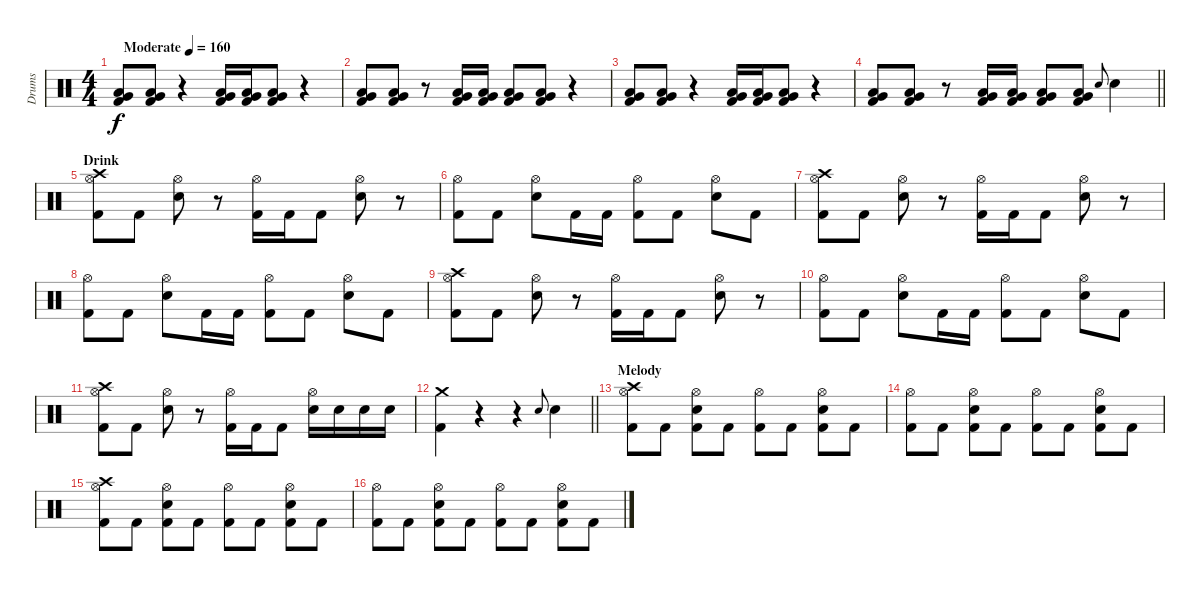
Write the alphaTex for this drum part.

\track ("Drums" "Drums") {instrument percussion}
\staff {score}
\articulation defaults
\ts (4 4)
\tempo (160 "Moderate")
\clef neutral
\ks c
("Very Low Tom (hit)" "Low Floor Tom (hit)" "Kick (hit) 2").8{dy f} ("Very Low Tom (hit)" "Low Floor Tom (hit)" "Kick (hit) 2").8 r.4 ("Very Low Tom (hit)" "Low Floor Tom (hit)" "Kick (hit) 2").16 ("Very Low Tom (hit)" "Low Floor Tom (hit)" "Kick (hit) 2").16 ("Very Low Tom (hit)" "Low Floor Tom (hit)" "Kick (hit) 2").8 r.4 |
("Very Low Tom (hit)" "Low Floor Tom (hit)" "Kick (hit) 2").8 ("Very Low Tom (hit)" "Low Floor Tom (hit)" "Kick (hit) 2").8 r.8 ("Very Low Tom (hit)" "Low Floor Tom (hit)" "Kick (hit) 2").16 ("Very Low Tom (hit)" "Low Floor Tom (hit)" "Kick (hit) 2").16 ("Very Low Tom (hit)" "Low Floor Tom (hit)" "Kick (hit) 2").8 ("Very Low Tom (hit)" "Low Floor Tom (hit)" "Kick (hit) 2").8 r.4 |
("Very Low Tom (hit)" "Low Floor Tom (hit)" "Kick (hit) 2").8 ("Very Low Tom (hit)" "Low Floor Tom (hit)" "Kick (hit) 2").8 r.4 ("Very Low Tom (hit)" "Low Floor Tom (hit)" "Kick (hit) 2").16 ("Very Low Tom (hit)" "Low Floor Tom (hit)" "Kick (hit) 2").16 ("Very Low Tom (hit)" "Low Floor Tom (hit)" "Kick (hit) 2").8 r.4 |
\barLineRight lightlight
("Very Low Tom (hit)" "Low Floor Tom (hit)" "Kick (hit) 2").8 ("Very Low Tom (hit)" "Low Floor Tom (hit)" "Kick (hit) 2").8 r.8 ("Very Low Tom (hit)" "Low Floor Tom (hit)" "Kick (hit) 2").16 ("Very Low Tom (hit)" "Low Floor Tom (hit)" "Kick (hit) 2").16 ("Very Low Tom (hit)" "Low Floor Tom (hit)" "Kick (hit) 2").8 ("Very Low Tom (hit)" "Low Floor Tom (hit)" "Kick (hit) 2").8 "Snare (hit) 2".8{gr onbeat} "Snare (hit) 2".4 |
\section ("" "Drink")
("Crash high (hit)" "Hi-Hat (open)" "Kick (hit) 2").8 "Kick (hit) 2".8 ("Hi-Hat (open)" "Snare (hit) 2").8 r.8 ("Hi-Hat (open)" "Kick (hit) 2").16 "Kick (hit) 2".16 "Kick (hit) 2".8 ("Hi-Hat (open)" "Snare (hit) 2").8 r.8 |
("Hi-Hat (open)" "Kick (hit) 2").8 "Kick (hit) 2".8 ("Hi-Hat (open)" "Snare (hit) 2").8 "Kick (hit) 2".16 "Kick (hit) 2".16 ("Hi-Hat (open)" "Kick (hit) 2").8 "Kick (hit) 2".8 ("Hi-Hat (open)" "Snare (hit) 2").8 "Kick (hit) 2".8 |
("Crash high (hit)" "Hi-Hat (open)" "Kick (hit) 2").8 "Kick (hit) 2".8 ("Hi-Hat (open)" "Snare (hit) 2").8 r.8 ("Hi-Hat (open)" "Kick (hit) 2").16 "Kick (hit) 2".16 "Kick (hit) 2".8 ("Hi-Hat (open)" "Snare (hit) 2").8 r.8 |
("Hi-Hat (open)" "Kick (hit) 2").8 "Kick (hit) 2".8 ("Hi-Hat (open)" "Snare (hit) 2").8 "Kick (hit) 2".16 "Kick (hit) 2".16 ("Hi-Hat (open)" "Kick (hit) 2").8 "Kick (hit) 2".8 ("Hi-Hat (open)" "Snare (hit) 2").8 "Kick (hit) 2".8 |
("Crash high (hit)" "Hi-Hat (open)" "Kick (hit) 2").8 "Kick (hit) 2".8 ("Hi-Hat (open)" "Snare (hit) 2").8 r.8 ("Hi-Hat (open)" "Kick (hit) 2").16 "Kick (hit) 2".16 "Kick (hit) 2".8 ("Hi-Hat (open)" "Snare (hit) 2").8 r.8 |
("Hi-Hat (open)" "Kick (hit) 2").8 "Kick (hit) 2".8 ("Hi-Hat (open)" "Snare (hit) 2").8 "Kick (hit) 2".16 "Kick (hit) 2".16 ("Hi-Hat (open)" "Kick (hit) 2").8 "Kick (hit) 2".8 ("Hi-Hat (open)" "Snare (hit) 2").8 "Kick (hit) 2".8 |
("Crash high (hit)" "Hi-Hat (open)" "Kick (hit) 2").8 "Kick (hit) 2".8 ("Hi-Hat (open)" "Snare (hit) 2").8 r.8 ("Hi-Hat (open)" "Kick (hit) 2").16 "Kick (hit) 2".16 "Kick (hit) 2".8 ("Hi-Hat (open)" "Snare (hit) 2").16 "Snare (hit) 2".16 "Snare (hit) 2".16 "Snare (hit) 2".16 |
\barLineRight lightlight
("Crash medium (hit)" "Kick (hit) 2").4 r.4 r.4 "Snare (hit) 2".8{gr onbeat} "Snare (hit) 2".4 |
\section ("" "Melody")
("Crash high (hit)" "Hi-Hat (open)" "Kick (hit) 2").8 "Kick (hit) 2".8 ("Hi-Hat (open)" "Snare (hit) 2" "Kick (hit) 2").8 "Kick (hit) 2".8 ("Hi-Hat (open)" "Kick (hit) 2").8 "Kick (hit) 2".8 ("Hi-Hat (open)" "Snare (hit) 2" "Kick (hit) 2").8 "Kick (hit) 2".8 |
("Hi-Hat (open)" "Kick (hit) 2").8 "Kick (hit) 2".8 ("Hi-Hat (open)" "Snare (hit) 2" "Kick (hit) 2").8 "Kick (hit) 2".8 ("Hi-Hat (open)" "Kick (hit) 2").8 "Kick (hit) 2".8 ("Hi-Hat (open)" "Snare (hit) 2" "Kick (hit) 2").8 "Kick (hit) 2".8 |
("Crash high (hit)" "Hi-Hat (open)" "Kick (hit) 2").8 "Kick (hit) 2".8 ("Hi-Hat (open)" "Snare (hit) 2" "Kick (hit) 2").8 "Kick (hit) 2".8 ("Hi-Hat (open)" "Kick (hit) 2").8 "Kick (hit) 2".8 ("Hi-Hat (open)" "Snare (hit) 2" "Kick (hit) 2").8 "Kick (hit) 2".8 |
("Hi-Hat (open)" "Kick (hit) 2").8 "Kick (hit) 2".8 ("Hi-Hat (open)" "Snare (hit) 2" "Kick (hit) 2").8 "Kick (hit) 2".8 ("Hi-Hat (open)" "Kick (hit) 2").8 "Kick (hit) 2".8 ("Hi-Hat (open)" "Snare (hit) 2" "Kick (hit) 2").8 "Kick (hit) 2".8
